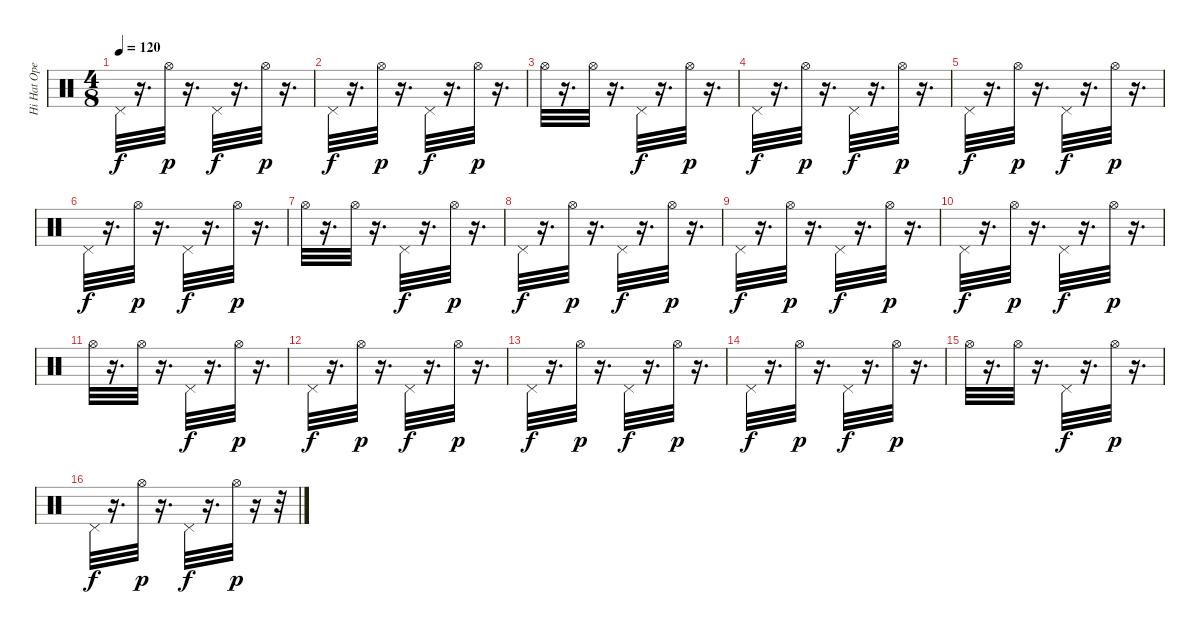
\track ("Hi Hat Open" "Hi Hat Ope") {instrument percussion}
\staff {score}
\articulation defaults
\ts (4 8)
\tempo 120
\clef neutral
\ks c "Pedal Hi-Hat (hit)".32{dy f}
r.16{d} "Hi-Hat (open)".32{dy p} r.16{d} "Pedal Hi-Hat (hit)".32{dy f} r.16{d} "Hi-Hat (open)".32{dy p} r.16{d} |
"Pedal Hi-Hat (hit)".32{dy f} r.16{d} "Hi-Hat (open)".32{dy p} r.16{d} "Pedal Hi-Hat (hit)".32{dy f} r.16{d} "Hi-Hat (open)".32{dy p} r.16{d} |
"Hi-Hat (open)".32 r.16{d} "Hi-Hat (open)".32 r.16{d} "Pedal Hi-Hat (hit)".32{dy f} r.16{d} "Hi-Hat (open)".32{dy p} r.16{d} |
"Pedal Hi-Hat (hit)".32{dy f} r.16{d} "Hi-Hat (open)".32{dy p} r.16{d} "Pedal Hi-Hat (hit)".32{dy f} r.16{d} "Hi-Hat (open)".32{dy p} r.16{d} |
"Pedal Hi-Hat (hit)".32{dy f} r.16{d} "Hi-Hat (open)".32{dy p} r.16{d} "Pedal Hi-Hat (hit)".32{dy f} r.16{d} "Hi-Hat (open)".32{dy p} r.16{d} |
"Pedal Hi-Hat (hit)".32{dy f} r.16{d} "Hi-Hat (open)".32{dy p} r.16{d} "Pedal Hi-Hat (hit)".32{dy f} r.16{d} "Hi-Hat (open)".32{dy p} r.16{d} |
"Hi-Hat (open)".32 r.16{d} "Hi-Hat (open)".32 r.16{d} "Pedal Hi-Hat (hit)".32{dy f} r.16{d} "Hi-Hat (open)".32{dy p} r.16{d} |
"Pedal Hi-Hat (hit)".32{dy f} r.16{d} "Hi-Hat (open)".32{dy p} r.16{d} "Pedal Hi-Hat (hit)".32{dy f} r.16{d} "Hi-Hat (open)".32{dy p} r.16{d} |
"Pedal Hi-Hat (hit)".32{dy f} r.16{d} "Hi-Hat (open)".32{dy p} r.16{d} "Pedal Hi-Hat (hit)".32{dy f} r.16{d} "Hi-Hat (open)".32{dy p} r.16{d} |
"Pedal Hi-Hat (hit)".32{dy f} r.16{d} "Hi-Hat (open)".32{dy p} r.16{d} "Pedal Hi-Hat (hit)".32{dy f} r.16{d} "Hi-Hat (open)".32{dy p} r.16{d} |
"Hi-Hat (open)".32 r.16{d} "Hi-Hat (open)".32 r.16{d} "Pedal Hi-Hat (hit)".32{dy f} r.16{d} "Hi-Hat (open)".32{dy p} r.16{d} |
"Pedal Hi-Hat (hit)".32{dy f} r.16{d} "Hi-Hat (open)".32{dy p} r.16{d} "Pedal Hi-Hat (hit)".32{dy f} r.16{d} "Hi-Hat (open)".32{dy p} r.16{d} |
"Pedal Hi-Hat (hit)".32{dy f} r.16{d} "Hi-Hat (open)".32{dy p} r.16{d} "Pedal Hi-Hat (hit)".32{dy f} r.16{d} "Hi-Hat (open)".32{dy p} r.16{d} |
"Pedal Hi-Hat (hit)".32{dy f} r.16{d} "Hi-Hat (open)".32{dy p} r.16{d} "Pedal Hi-Hat (hit)".32{dy f} r.16{d} "Hi-Hat (open)".32{dy p} r.16{d} |
"Hi-Hat (open)".32 r.16{d} "Hi-Hat (open)".32 r.16{d} "Pedal Hi-Hat (hit)".32{dy f} r.16{d} "Hi-Hat (open)".32{dy p} r.16{d} |
"Pedal Hi-Hat (hit)".32{dy f} r.16{d} "Hi-Hat (open)".32{dy p} r.16{d} "Pedal Hi-Hat (hit)".32{dy f} r.16{d} "Hi-Hat (open)".32{dy p} r.16 r.32
